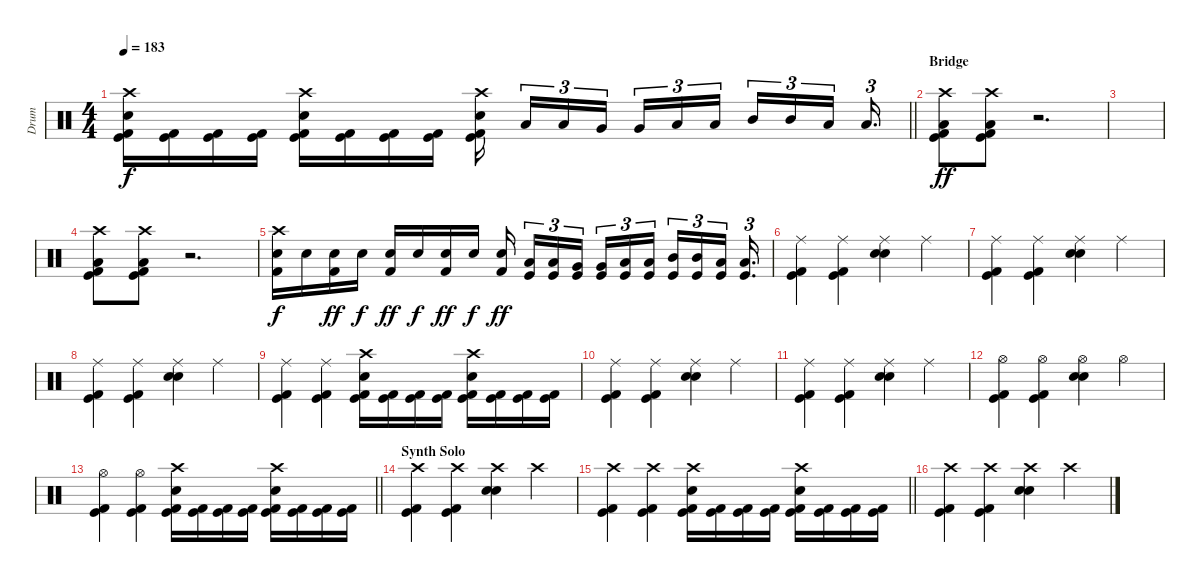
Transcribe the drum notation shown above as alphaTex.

\track ("Drum" "Drum") {instrument percussion}
\staff {score}
\articulation defaults
\ts (4 4)
\tempo 183
\clef neutral
\barLineRight lightlight
\ks c
("Crash high (hit)" "Electric Snare (hit)" "Kick (hit)" "Kick (hit) 2").16{dy f} ("Kick (hit)" "Kick (hit) 2").16 ("Kick (hit)" "Kick (hit) 2").16 ("Kick (hit)" "Kick (hit) 2").16 ("Crash high (hit)" "Electric Snare (hit)" "Kick (hit)" "Kick (hit) 2").16 ("Kick (hit)" "Kick (hit) 2").16 ("Kick (hit)" "Kick (hit) 2").16 ("Kick (hit)" "Kick (hit) 2").16 ("Crash high (hit)" "Electric Snare (hit)" "Kick (hit)" "Kick (hit) 2").16{beam splitsecondary} "Low Tom (hit)".16{tu (3 2)} "Low Tom (hit)".16{tu (3 2)} "Very Low Tom (hit)".16{tu (3 2) beam splitsecondary} "Very Low Tom (hit)".16{tu (3 2)} "Low Floor Tom (hit)".16{tu (3 2)} "Low Floor Tom (hit)".16{tu (3 2) beam splitsecondary} "Mid Tom (hit)".16{tu (3 2)} "Mid Tom (hit)".16{tu (3 2)} "Low Tom (hit)".16{tu (3 2) beam splitsecondary} "Low Tom (hit)".16{d tu (3 2)} |
\section ("" "Bridge")
("Crash high (hit)" "Kick (hit) 2" "Kick (hit)" "Low Floor Tom (hit)").8{dy ff} ("Crash high (hit)" "Kick (hit) 2" "Kick (hit)" "Low Floor Tom (hit)").8 r.2{d} |
|
("Crash high (hit)" "Kick (hit) 2" "Kick (hit)" "Low Floor Tom (hit)").8 ("Crash high (hit)" "Kick (hit) 2" "Kick (hit)" "Low Floor Tom (hit)").8 r.2{d} |
("Crash high (hit)" "Electric Snare (hit)" "Kick (hit) 2").16{dy f} "Electric Snare (hit)".16 ("Electric Snare (hit)" "Kick (hit) 2").16{dy ff} "Electric Snare (hit)".16{dy f} ("Electric Snare (hit)" "Kick (hit) 2").16{dy ff} "Electric Snare (hit)".16{dy f} ("Electric Snare (hit)" "Kick (hit) 2").16{dy ff} "Electric Snare (hit)".16{dy f} ("Electric Snare (hit)" "Kick (hit) 2").16{dy ff beam splitsecondary} ("Low Tom (hit)" "Kick (hit)").16{tu (3 2)} ("Low Tom (hit)" "Kick (hit)").16{tu (3 2)} ("Very Low Tom (hit)" "Kick (hit)").16{tu (3 2) beam splitsecondary} ("Very Low Tom (hit)" "Kick (hit)").16{tu (3 2)} ("Low Floor Tom (hit)" "Kick (hit)").16{tu (3 2)} ("Low Floor Tom (hit)" "Kick (hit)").16{tu (3 2) beam splitsecondary} ("Mid Tom (hit)" "Kick (hit)").16{tu (3 2)} ("Mid Tom (hit)" "Kick (hit)").16{tu (3 2)} ("Low Tom (hit)" "Kick (hit)").16{tu (3 2) beam splitsecondary} ("Low Tom (hit)" "Kick (hit)").16{d tu (3 2)} |
("Ride (middle)" "Kick (hit) 2" "Kick (hit)").4 ("Ride (middle)" "Kick (hit) 2" "Kick (hit)").4 ("Ride (middle)" "Electric Snare (hit)" "Electric Snare (hit)").4 "Ride (middle)".4 |
("Ride (middle)" "Kick (hit) 2" "Kick (hit)").4 ("Ride (middle)" "Kick (hit) 2" "Kick (hit)").4 ("Ride (middle)" "Electric Snare (hit)" "Electric Snare (hit)").4 "Ride (middle)".4 |
("Ride (middle)" "Kick (hit) 2" "Kick (hit)").4 ("Ride (middle)" "Kick (hit) 2" "Kick (hit)").4 ("Ride (middle)" "Electric Snare (hit)" "Electric Snare (hit)").4 "Ride (middle)".4 |
("Ride (middle)" "Kick (hit)" "Kick (hit) 2").4 ("Ride (middle)" "Kick (hit)" "Kick (hit) 2").4 ("Crash high (hit)" "Electric Snare (hit)" "Kick (hit) 2" "Kick (hit)").16 ("Kick (hit) 2" "Kick (hit)").16 ("Kick (hit) 2" "Kick (hit)").16 ("Kick (hit) 2" "Kick (hit)").16 ("Crash high (hit)" "Electric Snare (hit)" "Kick (hit) 2" "Kick (hit)").16 ("Kick (hit) 2" "Kick (hit)").16 ("Kick (hit) 2" "Kick (hit)").16 ("Kick (hit) 2" "Kick (hit)").16 |
("Ride (middle)" "Kick (hit) 2" "Kick (hit)").4 ("Ride (middle)" "Kick (hit) 2" "Kick (hit)").4 ("Ride (middle)" "Electric Snare (hit)" "Electric Snare (hit)").4 "Ride (middle)".4 |
("Ride (middle)" "Kick (hit) 2" "Kick (hit)").4 ("Ride (middle)" "Kick (hit) 2" "Kick (hit)").4 ("Ride (middle)" "Electric Snare (hit)" "Electric Snare (hit)").4 "Ride (middle)".4 |
("Hi-Hat (open)" "Kick (hit) 2" "Kick (hit)").4 ("Hi-Hat (open)" "Kick (hit) 2" "Kick (hit)").4 ("Hi-Hat (open)" "Electric Snare (hit)" "Electric Snare (hit)").4 "Hi-Hat (open)".4 |
\barLineRight lightlight
("Hi-Hat (open)" "Kick (hit)" "Kick (hit) 2").4 ("Hi-Hat (open)" "Kick (hit)" "Kick (hit) 2").4 ("Crash high (hit)" "Electric Snare (hit)" "Kick (hit) 2" "Kick (hit)").16 ("Kick (hit) 2" "Kick (hit)").16 ("Kick (hit) 2" "Kick (hit)").16 ("Kick (hit) 2" "Kick (hit)").16 ("Crash high (hit)" "Electric Snare (hit)" "Kick (hit) 2" "Kick (hit)").16 ("Kick (hit) 2" "Kick (hit)").16 ("Kick (hit) 2" "Kick (hit)").16 ("Kick (hit) 2" "Kick (hit)").16 |
\section ("" "Synth Solo")
("Crash high (hit)" "Kick (hit) 2" "Kick (hit)").4 ("Crash high (hit)" "Kick (hit) 2" "Kick (hit)").4 ("Crash high (hit)" "Electric Snare (hit)" "Electric Snare (hit)").4 "Crash high (hit)".4 |
\barLineRight lightlight
("Crash high (hit)" "Kick (hit)" "Kick (hit) 2").4 ("Crash high (hit)" "Kick (hit)" "Kick (hit) 2").4 ("Crash high (hit)" "Electric Snare (hit)" "Kick (hit) 2" "Kick (hit)").16 ("Kick (hit) 2" "Kick (hit)").16 ("Kick (hit) 2" "Kick (hit)").16 ("Kick (hit) 2" "Kick (hit)").16 ("Crash high (hit)" "Electric Snare (hit)" "Kick (hit) 2" "Kick (hit)").16 ("Kick (hit) 2" "Kick (hit)").16 ("Kick (hit) 2" "Kick (hit)").16 ("Kick (hit) 2" "Kick (hit)").16 |
("Crash high (hit)" "Kick (hit) 2" "Kick (hit)").4 ("Crash high (hit)" "Kick (hit) 2" "Kick (hit)").4 ("Crash high (hit)" "Electric Snare (hit)" "Electric Snare (hit)").4 "Crash high (hit)".4
